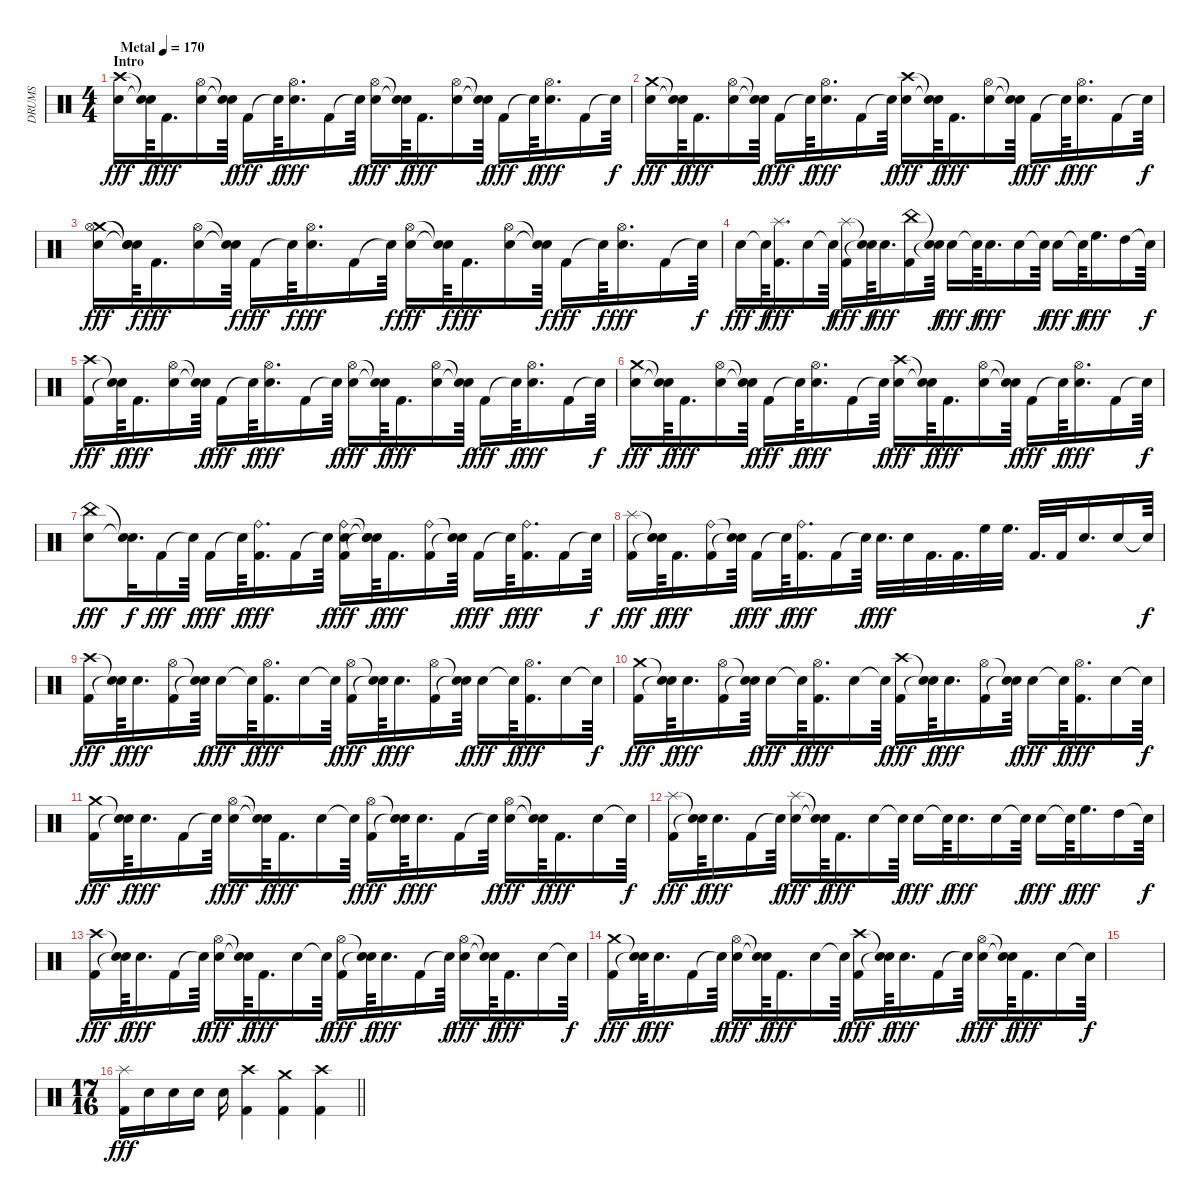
\track ("DRUMS" "DRUMS") {instrument percussion}
\staff {score}
\articulation defaults
\ts (4 4)
\section ("" "Intro")
\tempo (170 "Metal")
\clef neutral
\ks c
("Crash high (hit)" "Snare (hit) 2").16{dy fff} ("Snare (hit)"{t} "Snare (hit)"{t}).64{dy f} "Kick (hit) 2".16{d dy fff} ("Hi-Hat (open)" "Snare (hit) 2").16 ("Snare (hit)"{t} "Snare (hit)"{t}).64{dy f} "Kick (hit) 2".16{dy fff} "Snare (hit)"{t}.64{dy f} ("Hi-Hat (open)" "Snare (hit) 2").16{d dy fff} "Kick (hit) 2".16 "Snare (hit)"{t}.64{dy f} ("Hi-Hat (open)" "Snare (hit) 2").16{dy fff} ("Snare (hit)"{t} "Snare (hit)"{t}).64{dy f} "Kick (hit) 2".16{d dy fff} ("Hi-Hat (open)" "Snare (hit) 2").16 ("Snare (hit)"{t} "Snare (hit)"{t}).64{dy f} "Kick (hit) 2".16{dy fff} "Snare (hit)"{t}.64{dy f} ("Hi-Hat (open)" "Snare (hit) 2").16{d dy fff} "Kick (hit) 2".16 "Snare (hit)"{t}.64{dy f} |
("Crash medium (hit)" "Snare (hit) 2").16{dy fff} ("Snare (hit)"{t} "Snare (hit)"{t}).64{dy f} "Kick (hit) 2".16{d dy fff} ("Hi-Hat (open)" "Snare (hit) 2").16 ("Snare (hit)"{t} "Snare (hit)"{t}).64{dy f} "Kick (hit) 2".16{dy fff} "Snare (hit)"{t}.64{dy f} ("Hi-Hat (open)" "Snare (hit) 2").16{d dy fff} "Kick (hit) 2".16 "Snare (hit)"{t}.64{dy f} ("Crash high (hit)" "Snare (hit) 2").16{dy fff} ("Snare (hit)"{t} "Snare (hit)"{t}).64{dy f} "Kick (hit) 2".16{d dy fff} ("Hi-Hat (open)" "Snare (hit) 2").16 ("Snare (hit)"{t} "Snare (hit)"{t}).64{dy f} "Kick (hit) 2".16{dy fff} "Snare (hit)"{t}.64{dy f} ("Hi-Hat (open)" "Snare (hit) 2").16{d dy fff} "Kick (hit) 2".16 "Snare (hit)"{t}.64{dy f} |
("Crash medium (hit)" "Snare (hit) 2" "Hi-Hat (open)").16{dy fff} ("Snare (hit)"{t} "Snare (hit)"{t} "Snare (hit)"{t}).64{dy f} "Kick (hit) 2".16{d dy fff} ("Snare (hit) 2" "Hi-Hat (open)").16 ("Snare (hit)"{t} "Snare (hit)"{t}).64{dy f} "Kick (hit) 2".16{dy fff} "Snare (hit)"{t}.64{dy f} ("Snare (hit) 2" "Hi-Hat (open)").16{d dy fff} "Kick (hit) 2".16 "Snare (hit)"{t}.64{dy f} ("Snare (hit) 2" "Hi-Hat (open)").16{dy fff} ("Snare (hit)"{t} "Snare (hit)"{t}).64{dy f} "Kick (hit) 2".16{d dy fff} ("Snare (hit) 2" "Hi-Hat (open)").16 ("Snare (hit)"{t} "Snare (hit)"{t}).64{dy f} "Kick (hit) 2".16{dy fff} "Snare (hit)"{t}.64{dy f} ("Snare (hit) 2" "Hi-Hat (open)").16{d dy fff} "Kick (hit) 2".16 "Snare (hit)"{t}.64{dy f} |
"Snare (hit) 2".16{dy fff} "Snare (hit)"{t}.64{dy f} ("Kick (hit) 2" "Splash (hit)").16{d dy fff} "Snare (hit) 2".16 "Snare (hit)"{t}.64{dy f} ("Splash (hit)" "Kick (hit) 2").16{dy fff} ("Snare (hit)"{t} "Snare (hit)"{t}).64{dy f} "Snare (hit) 2".16{d dy fff} ("China (hit)" "Kick (hit) 2").16 ("Snare (hit)"{t} "Snare (hit)"{t}).64{dy f} "Snare (hit) 2".16{dy fff} "Snare (hit)"{t}.64{dy f} "Snare (hit) 2".16{d dy fff} "Snare (hit) 2".16 "Snare (hit)"{t}.64{dy f} "Snare (hit) 2".16{dy fff} "Snare (hit)"{t}.64{dy f} "High Floor Tom (hit)".16{d dy fff} "High Tom (hit)".16 "Snare (hit)"{t}.64{dy f} |
("Crash high (hit)" "Kick (hit) 2").16{dy fff} ("Snare (hit)"{t} "Snare (hit)"{t}).64{dy f} "Kick (hit) 2".16{d dy fff} ("Hi-Hat (open)" "Snare (hit) 2").16 ("Snare (hit)"{t} "Snare (hit)"{t}).64{dy f} "Kick (hit) 2".16{dy fff} "Snare (hit)"{t}.64{dy f} ("Hi-Hat (open)" "Snare (hit) 2").16{d dy fff} "Kick (hit) 2".16 "Snare (hit)"{t}.64{dy f} ("Hi-Hat (open)" "Snare (hit) 2").16{dy fff} ("Snare (hit)"{t} "Snare (hit)"{t}).64{dy f} "Kick (hit) 2".16{d dy fff} ("Hi-Hat (open)" "Snare (hit) 2").16 ("Snare (hit)"{t} "Snare (hit)"{t}).64{dy f} "Kick (hit) 2".16{dy fff} "Snare (hit)"{t}.64{dy f} ("Hi-Hat (open)" "Snare (hit) 2").16{d dy fff} "Kick (hit) 2".16 "Snare (hit)"{t}.64{dy f} |
("Crash medium (hit)" "Snare (hit) 2").16{dy fff} ("Snare (hit)"{t} "Snare (hit)"{t}).64{dy f} "Kick (hit) 2".16{d dy fff} ("Hi-Hat (open)" "Snare (hit) 2").16 ("Snare (hit)"{t} "Snare (hit)"{t}).64{dy f} "Kick (hit) 2".16{dy fff} "Snare (hit)"{t}.64{dy f} ("Hi-Hat (open)" "Snare (hit) 2").16{d dy fff} "Kick (hit) 2".16 "Snare (hit)"{t}.64{dy f} ("Crash high (hit)" "Snare (hit) 2").16{dy fff} ("Snare (hit)"{t} "Snare (hit)"{t}).64{dy f} "Kick (hit) 2".16{d dy fff} ("Hi-Hat (open)" "Snare (hit) 2").16 ("Snare (hit)"{t} "Snare (hit)"{t}).64{dy f} "Kick (hit) 2".16{dy fff} "Snare (hit)"{t}.64{dy f} ("Hi-Hat (open)" "Snare (hit) 2").16{d dy fff} "Kick (hit) 2".16 "Snare (hit)"{t}.64{dy f} |
("Snare (hit) 2" "China (hit)").8{dy fff} ("Snare (hit)"{t} "Snare (hit)"{t}).32{d dy f} "Kick (hit) 2".16{dy fff} "Snare (hit)"{t}.64{dy f} "Kick (hit) 2".16{dy fff} "Snare (hit)"{t}.64{dy f} ("Ride (bell)" "Kick (hit) 2").16{d dy fff} "Kick (hit) 2".16 "Snare (hit)"{t}.64{dy f} ("Snare (hit) 2" "Ride (bell)" "Kick (hit) 2").16{dy fff} ("Snare (hit)"{t} "Snare (hit)"{t} "Snare (hit)"{t}).64{dy f} "Kick (hit) 2".16{d dy fff} ("Ride (bell)" "Kick (hit) 2").16 ("Snare (hit)"{t} "Snare (hit)"{t}).64{dy f} "Kick (hit) 2".16{dy fff} "Snare (hit)"{t}.64{dy f} ("Ride (bell)" "Kick (hit) 2").16{d dy fff} "Kick (hit) 2".16 "Snare (hit)"{t}.64{dy f} |
("Splash (hit)" "Kick (hit) 2").16{dy fff} ("Snare (hit)"{t} "Snare (hit)"{t}).64{dy f} "Kick (hit) 2".16{d dy fff} ("Ride (bell)" "Kick (hit) 2").16 ("Snare (hit)"{t} "Snare (hit)"{t}).64{dy f} "Kick (hit) 2".16{dy fff} "Snare (hit)"{t}.64{dy f} ("Ride (bell)" "Kick (hit) 2").16{d dy fff} "Kick (hit) 2".16 "Snare (hit)"{t}.64{dy f} "Snare (hit) 2".32{d dy fff} "Snare (hit) 2".32 "Kick (hit) 2".32{d} "Kick (hit) 2".32{d} "High Floor Tom (hit)".32 "High Floor Tom (hit)".32{d} "Kick (hit) 2".32{d} "Kick (hit) 2".32 "Snare (hit) 2".16{d} "Snare (hit) 2".16 "Snare (hit)"{t}.64{dy f} |
("Kick (hit) 2" "Crash high (hit)").16{dy fff} ("Snare (hit)"{t} "Snare (hit)"{t}).64{dy f} "Snare (hit) 2".16{d dy fff} ("Kick (hit) 2" "Hi-Hat (open)").16 ("Snare (hit)"{t} "Snare (hit)"{t}).64{dy f} "Snare (hit) 2".16{dy fff} "Snare (hit)"{t}.64{dy f} ("Kick (hit) 2" "Hi-Hat (open)").16{d dy fff} "Snare (hit) 2".16 "Snare (hit)"{t}.64{dy f} ("Kick (hit) 2" "Hi-Hat (open)").16{dy fff} ("Snare (hit)"{t} "Snare (hit)"{t}).64{dy f} "Snare (hit) 2".16{d dy fff} ("Kick (hit) 2" "Hi-Hat (open)").16 ("Snare (hit)"{t} "Snare (hit)"{t}).64{dy f} "Snare (hit) 2".16{dy fff} "Snare (hit)"{t}.64{dy f} ("Kick (hit) 2" "Hi-Hat (open)").16{d dy fff} "Snare (hit) 2".16 "Snare (hit)"{t}.64{dy f} |
("Crash medium (hit)" "Kick (hit) 2").16{dy fff} ("Snare (hit)"{t} "Snare (hit)"{t}).64{dy f} "Snare (hit) 2".16{d dy fff} ("Hi-Hat (open)" "Kick (hit) 2").16 ("Snare (hit)"{t} "Snare (hit)"{t}).64{dy f} "Snare (hit) 2".16{dy fff} "Snare (hit)"{t}.64{dy f} ("Hi-Hat (open)" "Kick (hit) 2").16{d dy fff} "Snare (hit) 2".16 "Snare (hit)"{t}.64{dy f} ("Crash high (hit)" "Kick (hit) 2").16{dy fff} ("Snare (hit)"{t} "Snare (hit)"{t}).64{dy f} "Snare (hit) 2".16{d dy fff} ("Hi-Hat (open)" "Kick (hit) 2").16 ("Snare (hit)"{t} "Snare (hit)"{t}).64{dy f} "Snare (hit) 2".16{dy fff} "Snare (hit)"{t}.64{dy f} ("Hi-Hat (open)" "Kick (hit) 2").16{d dy fff} "Snare (hit) 2".16 "Snare (hit)"{t}.64{dy f} |
("Kick (hit) 2" "Crash medium (hit)").16{dy fff} ("Snare (hit)"{t} "Snare (hit)"{t}).64{dy f} "Snare (hit) 2".16{d dy fff} "Kick (hit) 2".16 "Snare (hit)"{t}.64{dy f} ("Snare (hit) 2" "Hi-Hat (open)").16{dy fff} ("Snare (hit)"{t} "Snare (hit)"{t}).64{dy f} "Kick (hit) 2".16{d dy fff} "Snare (hit) 2".16 "Snare (hit)"{t}.64{dy f} ("Hi-Hat (open)" "Kick (hit) 2").16{dy fff} ("Snare (hit)"{t} "Snare (hit)"{t}).64{dy f} "Snare (hit) 2".16{d dy fff} "Kick (hit) 2".16 "Snare (hit)"{t}.64{dy f} ("Snare (hit) 2" "Hi-Hat (open)").16{dy fff} ("Snare (hit)"{t} "Snare (hit)"{t}).64{dy f} "Kick (hit) 2".16{d dy fff} "Snare (hit) 2".16 "Snare (hit)"{t}.64{dy f} |
("Kick (hit) 2" "Splash (hit)").16{dy fff} ("Snare (hit)"{t} "Snare (hit)"{t}).64{dy f} "Snare (hit) 2".16{d dy fff} "Kick (hit) 2".16 "Snare (hit)"{t}.64{dy f} ("Snare (hit) 2" "Splash (hit)").16{dy fff} ("Snare (hit)"{t} "Snare (hit)"{t}).64{dy f} "Kick (hit) 2".16{d dy fff} "Snare (hit) 2".16 "Snare (hit)"{t}.64{dy f} "Snare (hit) 2".16{dy fff} "Snare (hit)"{t}.64{dy f} "Snare (hit) 2".16{d dy fff} "Snare (hit) 2".16 "Snare (hit)"{t}.64{dy f} "Snare (hit) 2".16{dy fff} "Snare (hit)"{t}.64{dy f} "High Floor Tom (hit)".16{d dy fff} "High Tom (hit)".16 "Snare (hit)"{t}.64{dy f} |
("Kick (hit) 2" "Crash high (hit)").16{dy fff} ("Snare (hit)"{t} "Snare (hit)"{t}).64{dy f} "Snare (hit) 2".16{d dy fff} "Kick (hit) 2".16 "Snare (hit)"{t}.64{dy f} ("Snare (hit) 2" "Hi-Hat (open)").16{dy fff} ("Snare (hit)"{t} "Snare (hit)"{t}).64{dy f} "Kick (hit) 2".16{d dy fff} "Snare (hit) 2".16 "Snare (hit)"{t}.64{dy f} ("Hi-Hat (open)" "Kick (hit) 2").16{dy fff} ("Snare (hit)"{t} "Snare (hit)"{t}).64{dy f} "Snare (hit) 2".16{d dy fff} "Kick (hit) 2".16 "Snare (hit)"{t}.64{dy f} ("Snare (hit) 2" "Hi-Hat (open)").16{dy fff} ("Snare (hit)"{t} "Snare (hit)"{t}).64{dy f} "Kick (hit) 2".16{d dy fff} "Snare (hit) 2".16 "Snare (hit)"{t}.64{dy f} |
("Crash medium (hit)" "Kick (hit) 2").16{dy fff} ("Snare (hit)"{t} "Snare (hit)"{t}).64{dy f} "Snare (hit) 2".16{d dy fff} "Kick (hit) 2".16 "Snare (hit)"{t}.64{dy f} ("Snare (hit) 2" "Hi-Hat (open)").16{dy fff} ("Snare (hit)"{t} "Snare (hit)"{t}).64{dy f} "Kick (hit) 2".16{d dy fff} "Snare (hit) 2".16 "Snare (hit)"{t}.64{dy f} ("Kick (hit) 2" "Crash high (hit)").16{dy fff} ("Snare (hit)"{t} "Snare (hit)"{t}).64{dy f} "Snare (hit) 2".16{d dy fff} "Kick (hit) 2".16 "Snare (hit)"{t}.64{dy f} ("Snare (hit) 2" "Hi-Hat (open)").16{dy fff} ("Snare (hit)"{t} "Snare (hit)"{t}).64{dy f} "Kick (hit) 2".16{d dy fff} "Snare (hit) 2".16 "Snare (hit)"{t}.64{dy f} |
|
\ts (17 16)
\barLineRight lightlight
("Splash (hit)" "Kick (hit) 2").16{dy fff} "Snare (hit) 2".16 "Snare (hit) 2".16 "Snare (hit) 2".16 "Snare (hit) 2".16 ("Kick (hit) 2" "Crash high (hit)").4 ("Kick (hit) 2" "Crash medium (hit)").4 ("Kick (hit) 2" "Crash high (hit)").4
